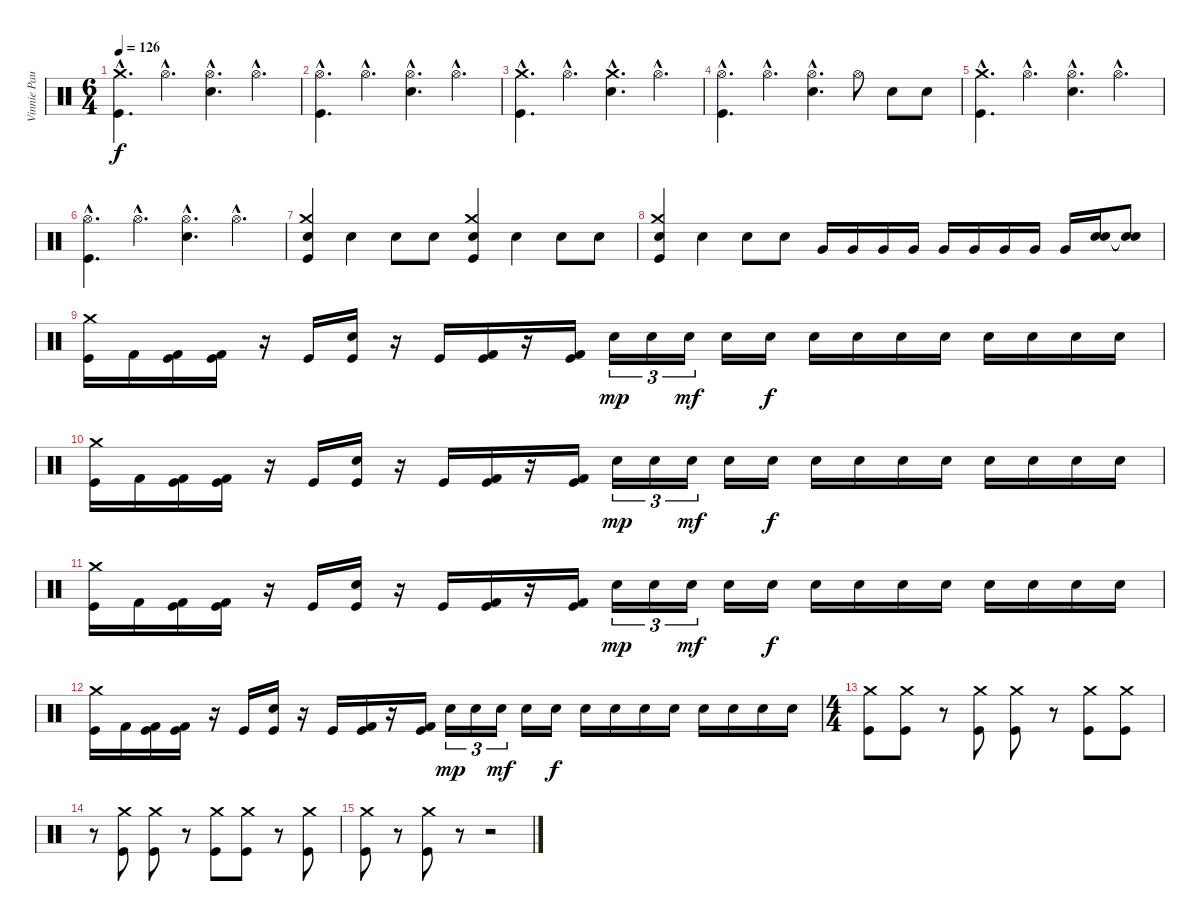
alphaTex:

\track ("Vinnie Paul" "Vinnie Pau") {instrument percussion}
\staff {score}
\articulation defaults
\ts (6 4)
\tempo 126
\clef neutral
\ks c
("Kick (hit)"{hac} "Crash medium (hit)"{hac}).4{d dy f} "Hi-Hat (open)"{hac}.4{d} ("Snare (hit) 2"{hac} "Hi-Hat (open)"{hac}).4{d} "Hi-Hat (open)"{hac}.4{d} |
("Kick (hit)"{hac} "Hi-Hat (open)"{hac}).4{d} "Hi-Hat (open)"{hac}.4{d} ("Snare (hit) 2"{hac} "Hi-Hat (open)"{hac}).4{d} "Hi-Hat (open)"{hac}.4{d} |
("Kick (hit)"{hac} "Crash medium (hit)"{hac}).4{d} "Hi-Hat (open)"{hac}.4{d} ("Snare (hit) 2"{hac} "Crash medium (hit)"{hac}).4{d} "Hi-Hat (open)"{hac}.4{d} |
("Kick (hit)"{hac} "Hi-Hat (open)"{hac}).4{d} "Hi-Hat (open)"{hac}.4{d} ("Snare (hit) 2"{hac} "Hi-Hat (open)"{hac}).4{d} "Hi-Hat (open)".8 "Snare (hit) 2".8 "Snare (hit) 2".8 |
("Kick (hit)"{hac} "Crash medium (hit)"{hac}).4{d} "Hi-Hat (open)"{hac}.4{d} ("Snare (hit) 2"{hac} "Hi-Hat (open)"{hac}).4{d} "Hi-Hat (open)"{hac}.4{d} |
("Kick (hit)"{hac} "Hi-Hat (open)"{hac}).4{d} "Hi-Hat (open)"{hac}.4{d} ("Snare (hit) 2"{hac} "Hi-Hat (open)"{hac}).4{d} "Hi-Hat (open)"{hac}.4{d} |
("Kick (hit)" "Snare (hit) 2" "Crash medium (hit)").4 "Snare (hit) 2".4 "Snare (hit) 2".8 "Snare (hit) 2".8 ("Kick (hit)" "Snare (hit) 2" "Crash medium (hit)").4 "Snare (hit) 2".4 "Snare (hit) 2".8 "Snare (hit) 2".8 |
("Kick (hit)" "Snare (hit) 2" "Crash medium (hit)").4 "Snare (hit) 2".4 "Snare (hit) 2".8 "Snare (hit) 2".8 "Very Low Tom (hit)".16 "Very Low Tom (hit)".16 "Very Low Tom (hit)".16 "Very Low Tom (hit)".16 "Very Low Tom (hit)".16 "Very Low Tom (hit)".16 "Very Low Tom (hit)".16 "Very Low Tom (hit)".16 "Very Low Tom (hit)".16 ("Snare (hit) 2" "Snare (hit) 2").16 ("Snare (hit) 2"{t} "Snare (hit) 2"{t}).8 |
("Kick (hit)" "Crash medium (hit)").16 "Kick (hit) 2".16 ("Kick (hit)" "Kick (hit) 2").16 ("Kick (hit)" "Kick (hit) 2").16 r.16 "Kick (hit)".16 ("Kick (hit)" "Snare (hit) 2").16 r.16 "Kick (hit)".16 ("Kick (hit)" "Kick (hit) 2").16 r.16 ("Kick (hit)" "Kick (hit) 2").16 "Snare (hit) 2".16{tu (3 2) dy mp} "Snare (hit) 2".16{tu (3 2)} "Snare (hit) 2".16{tu (3 2) dy mf} "Snare (hit) 2".16 "Snare (hit) 2".16{dy f} "Snare (hit) 2".16 "Snare (hit) 2".16 "Snare (hit) 2".16 "Snare (hit) 2".16 "Snare (hit) 2".16 "Snare (hit) 2".16 "Snare (hit) 2".16 "Snare (hit) 2".16 |
("Kick (hit)" "Crash medium (hit)").16 "Kick (hit) 2".16 ("Kick (hit)" "Kick (hit) 2").16 ("Kick (hit)" "Kick (hit) 2").16 r.16 "Kick (hit)".16 ("Kick (hit)" "Snare (hit) 2").16 r.16 "Kick (hit)".16 ("Kick (hit)" "Kick (hit) 2").16 r.16 ("Kick (hit)" "Kick (hit) 2").16 "Snare (hit) 2".16{tu (3 2) dy mp} "Snare (hit) 2".16{tu (3 2)} "Snare (hit) 2".16{tu (3 2) dy mf} "Snare (hit) 2".16 "Snare (hit) 2".16{dy f} "Snare (hit) 2".16 "Snare (hit) 2".16 "Snare (hit) 2".16 "Snare (hit) 2".16 "Snare (hit) 2".16 "Snare (hit) 2".16 "Snare (hit) 2".16 "Snare (hit) 2".16 |
("Kick (hit)" "Crash medium (hit)").16 "Kick (hit) 2".16 ("Kick (hit)" "Kick (hit) 2").16 ("Kick (hit)" "Kick (hit) 2").16 r.16 "Kick (hit)".16 ("Kick (hit)" "Snare (hit) 2").16 r.16 "Kick (hit)".16 ("Kick (hit)" "Kick (hit) 2").16 r.16 ("Kick (hit)" "Kick (hit) 2").16 "Snare (hit) 2".16{tu (3 2) dy mp} "Snare (hit) 2".16{tu (3 2)} "Snare (hit) 2".16{tu (3 2) dy mf} "Snare (hit) 2".16 "Snare (hit) 2".16{dy f} "Snare (hit) 2".16 "Snare (hit) 2".16 "Snare (hit) 2".16 "Snare (hit) 2".16 "Snare (hit) 2".16 "Snare (hit) 2".16 "Snare (hit) 2".16 "Snare (hit) 2".16 |
("Kick (hit)" "Crash medium (hit)").16 "Kick (hit) 2".16 ("Kick (hit)" "Kick (hit) 2").16 ("Kick (hit)" "Kick (hit) 2").16 r.16 "Kick (hit)".16 ("Kick (hit)" "Snare (hit) 2").16 r.16 "Kick (hit)".16 ("Kick (hit)" "Kick (hit) 2").16 r.16 ("Kick (hit)" "Kick (hit) 2").16 "Snare (hit) 2".16{tu (3 2) dy mp} "Snare (hit) 2".16{tu (3 2)} "Snare (hit) 2".16{tu (3 2) dy mf} "Snare (hit) 2".16 "Snare (hit) 2".16{dy f} "Snare (hit) 2".16 "Snare (hit) 2".16 "Snare (hit) 2".16 "Snare (hit) 2".16 "Snare (hit) 2".16 "Snare (hit) 2".16 "Snare (hit) 2".16 "Snare (hit) 2".16 |
\ts (4 4)
("Kick (hit)" "Crash medium (hit)").8 ("Kick (hit)" "Crash medium (hit)").8 r.8 ("Kick (hit)" "Crash medium (hit)").8 ("Kick (hit)" "Crash medium (hit)").8 r.8 ("Kick (hit)" "Crash medium (hit)").8 ("Kick (hit)" "Crash medium (hit)").8 |
r.8 ("Kick (hit)" "Crash medium (hit)").8 ("Kick (hit)" "Crash medium (hit)").8 r.8 ("Kick (hit)" "Crash medium (hit)").8 ("Kick (hit)" "Crash medium (hit)").8 r.8 ("Kick (hit)" "Crash medium (hit)").8 |
("Kick (hit)" "Crash medium (hit)").8 r.8 ("Kick (hit)" "Crash medium (hit)").8 r.8 r.2
